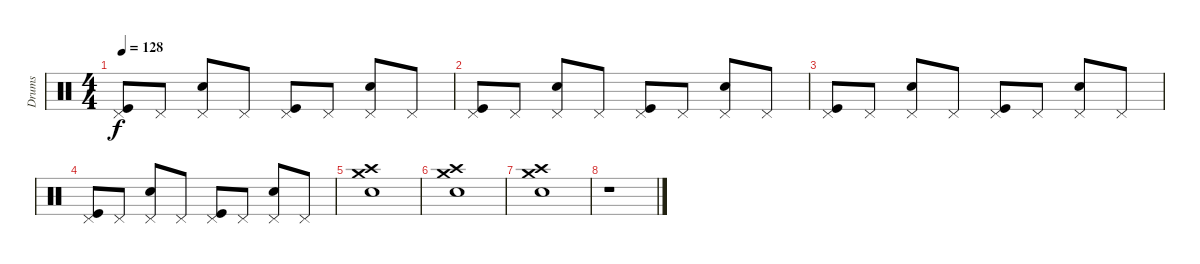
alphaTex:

\track ("Drums" "Drums") {instrument percussion}
\staff {score}
\articulation defaults
\ts (4 4)
\tempo 128
\clef neutral
\ks c
("Pedal Hi-Hat (hit)" "Kick (hit)").8{dy f} "Pedal Hi-Hat (hit)".8 ("Pedal Hi-Hat (hit)" "Electric Snare (hit)").8 "Pedal Hi-Hat (hit)".8 ("Pedal Hi-Hat (hit)" "Kick (hit)").8 "Pedal Hi-Hat (hit)".8 ("Pedal Hi-Hat (hit)" "Electric Snare (hit)").8 "Pedal Hi-Hat (hit)".8 |
("Pedal Hi-Hat (hit)" "Kick (hit)").8 "Pedal Hi-Hat (hit)".8 ("Pedal Hi-Hat (hit)" "Electric Snare (hit)").8 "Pedal Hi-Hat (hit)".8 ("Pedal Hi-Hat (hit)" "Kick (hit)").8 "Pedal Hi-Hat (hit)".8 ("Pedal Hi-Hat (hit)" "Electric Snare (hit)").8 "Pedal Hi-Hat (hit)".8 |
("Pedal Hi-Hat (hit)" "Kick (hit)").8 "Pedal Hi-Hat (hit)".8 ("Pedal Hi-Hat (hit)" "Electric Snare (hit)").8 "Pedal Hi-Hat (hit)".8 ("Pedal Hi-Hat (hit)" "Kick (hit)").8 "Pedal Hi-Hat (hit)".8 ("Pedal Hi-Hat (hit)" "Electric Snare (hit)").8 "Pedal Hi-Hat (hit)".8 |
("Pedal Hi-Hat (hit)" "Kick (hit)").8 "Pedal Hi-Hat (hit)".8 ("Pedal Hi-Hat (hit)" "Electric Snare (hit)").8 "Pedal Hi-Hat (hit)".8 ("Pedal Hi-Hat (hit)" "Kick (hit)").8 "Pedal Hi-Hat (hit)".8 ("Pedal Hi-Hat (hit)" "Electric Snare (hit)").8 "Pedal Hi-Hat (hit)".8 |
("Crash high (hit)" "Crash medium (hit)" "Electric Snare (hit)").1 |
("Crash high (hit)" "Crash medium (hit)" "Electric Snare (hit)").1 |
("Crash high (hit)" "Crash medium (hit)" "Electric Snare (hit)").1 |
r.1
